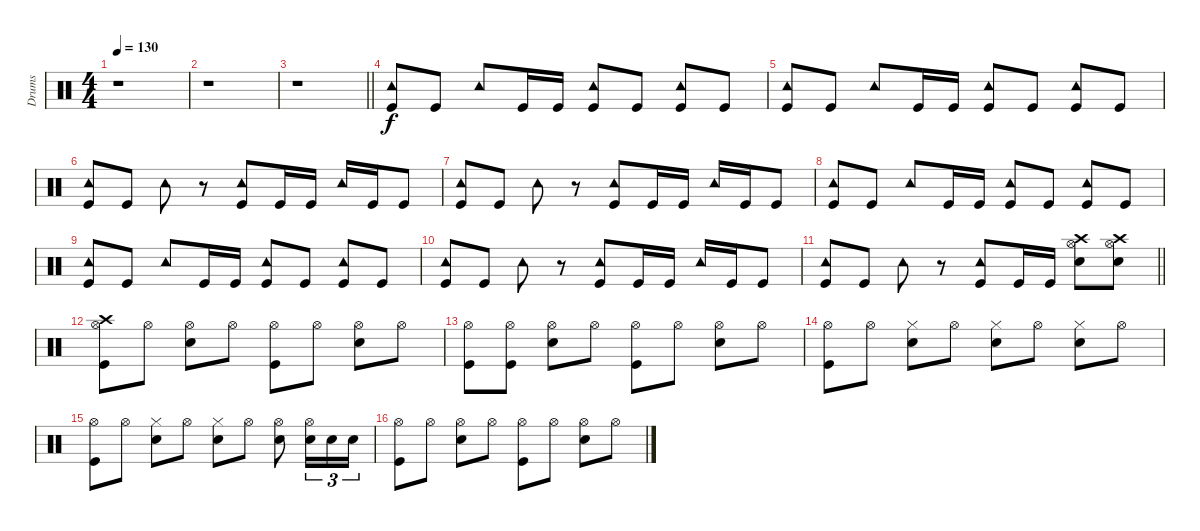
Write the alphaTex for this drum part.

\track ("Drums" "Drums") {instrument percussion}
\staff {score}
\articulation defaults
\ts (4 4)
\tempo 130
\clef neutral
\ks c
r.1{dy f} |
r.1 |
\barLineRight lightlight
r.1 |
\section ("" "")
("Tambourine (hit)" "Kick (hit)").8 "Kick (hit)".8 "Tambourine (hit)".8 "Kick (hit)".16 "Kick (hit)".16 ("Tambourine (hit)" "Kick (hit)").8 "Kick (hit)".8 ("Tambourine (hit)" "Kick (hit)").8 "Kick (hit)".8 |
("Tambourine (hit)" "Kick (hit)").8 "Kick (hit)".8 "Tambourine (hit)".8 "Kick (hit)".16 "Kick (hit)".16 ("Tambourine (hit)" "Kick (hit)").8 "Kick (hit)".8 ("Tambourine (hit)" "Kick (hit)").8 "Kick (hit)".8 |
("Tambourine (hit)" "Kick (hit)").8 "Kick (hit)".8 "Tambourine (hit)".8 r.8 ("Tambourine (hit)" "Kick (hit)").8 "Kick (hit)".16 "Kick (hit)".16 "Tambourine (hit)".16 "Kick (hit)".16 "Kick (hit)".8 |
("Tambourine (hit)" "Kick (hit)").8 "Kick (hit)".8 "Tambourine (hit)".8 r.8 ("Tambourine (hit)" "Kick (hit)").8 "Kick (hit)".16 "Kick (hit)".16 "Tambourine (hit)".16 "Kick (hit)".16 "Kick (hit)".8 |
("Tambourine (hit)" "Kick (hit)").8 "Kick (hit)".8 "Tambourine (hit)".8 "Kick (hit)".16 "Kick (hit)".16 ("Tambourine (hit)" "Kick (hit)").8 "Kick (hit)".8 ("Tambourine (hit)" "Kick (hit)").8 "Kick (hit)".8 |
("Tambourine (hit)" "Kick (hit)").8 "Kick (hit)".8 "Tambourine (hit)".8 "Kick (hit)".16 "Kick (hit)".16 ("Tambourine (hit)" "Kick (hit)").8 "Kick (hit)".8 ("Tambourine (hit)" "Kick (hit)").8 "Kick (hit)".8 |
("Tambourine (hit)" "Kick (hit)").8 "Kick (hit)".8 "Tambourine (hit)".8 r.8 ("Tambourine (hit)" "Kick (hit)").8 "Kick (hit)".16 "Kick (hit)".16 "Tambourine (hit)".16 "Kick (hit)".16 "Kick (hit)".8 |
\barLineRight lightlight
("Tambourine (hit)" "Kick (hit)").8 "Kick (hit)".8 "Tambourine (hit)".8 r.8 ("Tambourine (hit)" "Kick (hit)").8 "Kick (hit)".16 "Kick (hit)".16 ("Crash high (hit)" "Hi-Hat (open)" "Snare (hit) 2").8 ("Crash high (hit)" "Hi-Hat (open)" "Snare (hit) 2").8 |
\section ("" "")
("Crash high (hit)" "Hi-Hat (open)" "Kick (hit)").8 "Hi-Hat (open)".8 ("Hi-Hat (open)" "Snare (hit) 2").8 "Hi-Hat (open)".8 ("Hi-Hat (open)" "Kick (hit)").8 "Hi-Hat (open)".8 ("Hi-Hat (open)" "Snare (hit) 2").8 "Hi-Hat (open)".8 |
("Hi-Hat (open)" "Kick (hit)").8 ("Hi-Hat (open)" "Kick (hit)").8 ("Hi-Hat (open)" "Snare (hit) 2").8 "Hi-Hat (open)".8 ("Hi-Hat (open)" "Kick (hit)").8 "Hi-Hat (open)".8 ("Hi-Hat (open)" "Snare (hit) 2").8 "Hi-Hat (open)".8 |
("Hi-Hat (open)" "Kick (hit)").8 "Hi-Hat (open)".8 ("Hi-Hat (closed)" "Snare (hit) 2").8 "Hi-Hat (open)".8 ("Hi-Hat (closed)" "Snare (hit) 2").8 "Hi-Hat (open)".8 ("Hi-Hat (closed)" "Snare (hit) 2").8 "Hi-Hat (open)".8 |
("Hi-Hat (open)" "Kick (hit)").8 "Hi-Hat (open)".8 ("Hi-Hat (closed)" "Snare (hit) 2").8 "Hi-Hat (open)".8 ("Hi-Hat (closed)" "Snare (hit) 2").8 "Hi-Hat (open)".8 ("Hi-Hat (open)" "Snare (hit) 2").8 ("Hi-Hat (open)" "Snare (hit) 2").16{tu (3 2)} "Snare (hit) 2".16{tu (3 2)} "Snare (hit) 2".16{tu (3 2)} |
("Hi-Hat (open)" "Kick (hit)").8 "Hi-Hat (open)".8 ("Hi-Hat (open)" "Snare (hit) 2").8 "Hi-Hat (open)".8 ("Hi-Hat (open)" "Kick (hit)").8 "Hi-Hat (open)".8 ("Hi-Hat (open)" "Snare (hit) 2").8 "Hi-Hat (open)".8
